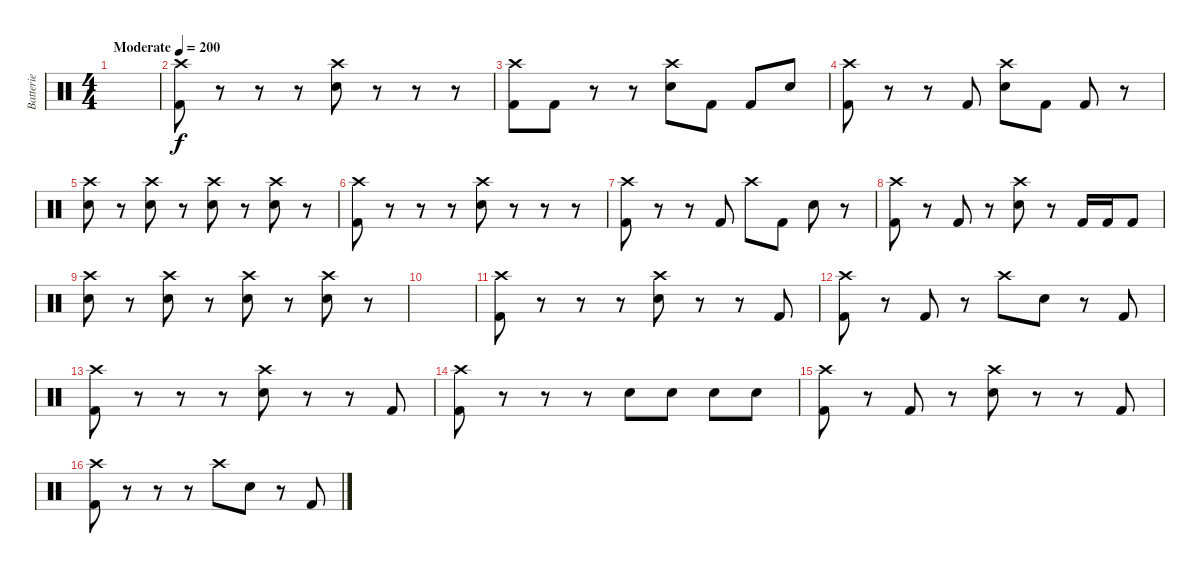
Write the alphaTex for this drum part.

\track ("Batterie" "Batterie") {instrument percussion}
\staff {score}
\articulation defaults
\ts (4 4)
\tempo (200 "Moderate")
\clef neutral
\ks c
|
("Crash high (hit)" "Kick (hit) 2").8 r.8 r.8 r.8 ("Crash high (hit)" "Electric Snare (hit)").8 r.8 r.8 r.8 |
("Crash high (hit)" "Kick (hit) 2").8 "Kick (hit) 2".8 r.8 r.8 ("Crash high (hit)" "Electric Snare (hit)").8 "Kick (hit) 2".8 "Kick (hit) 2".8 "Electric Snare (hit)".8 |
("Crash high (hit)" "Kick (hit) 2").8 r.8 r.8 "Kick (hit) 2".8 ("Crash high (hit)" "Electric Snare (hit)").8 "Kick (hit) 2".8 "Kick (hit) 2".8 r.8 |
("Crash high (hit)" "Electric Snare (hit)").8 r.8 ("Crash high (hit)" "Electric Snare (hit)").8 r.8 ("Crash high (hit)" "Electric Snare (hit)").8 r.8 ("Crash high (hit)" "Electric Snare (hit)").8 r.8 |
("Crash high (hit)" "Kick (hit) 2").8 r.8 r.8 r.8 ("Crash high (hit)" "Electric Snare (hit)").8 r.8 r.8 r.8 |
("Crash high (hit)" "Kick (hit) 2").8 r.8 r.8 "Kick (hit) 2".8 "Crash high (hit)".8 "Kick (hit) 2".8 "Electric Snare (hit)".8 r.8 |
("Crash high (hit)" "Kick (hit) 2").8 r.8 "Kick (hit) 2".8 r.8 ("Crash high (hit)" "Electric Snare (hit)").8 r.8 "Kick (hit) 2".16 "Kick (hit) 2".16 "Kick (hit) 2".8 |
("Crash high (hit)" "Electric Snare (hit)").8 r.8 ("Crash high (hit)" "Electric Snare (hit)").8 r.8 ("Crash high (hit)" "Electric Snare (hit)").8 r.8 ("Crash high (hit)" "Electric Snare (hit)").8 r.8 |
|
("Crash high (hit)" "Kick (hit) 2").8 r.8 r.8 r.8 ("Crash high (hit)" "Electric Snare (hit)").8 r.8 r.8 "Kick (hit) 2".8 |
("Crash high (hit)" "Kick (hit) 2").8 r.8 "Kick (hit) 2".8 r.8 "Crash high (hit)".8 "Electric Snare (hit)".8 r.8 "Kick (hit) 2".8 |
("Crash high (hit)" "Kick (hit) 2").8 r.8 r.8 r.8 ("Crash high (hit)" "Electric Snare (hit)").8 r.8 r.8 "Kick (hit) 2".8 |
("Crash high (hit)" "Kick (hit) 2").8 r.8 r.8 r.8 "Electric Snare (hit)".8 "Electric Snare (hit)".8 "Electric Snare (hit)".8 "Electric Snare (hit)".8 |
("Crash high (hit)" "Kick (hit) 2").8 r.8 "Kick (hit) 2".8 r.8 ("Crash high (hit)" "Electric Snare (hit)").8 r.8 r.8 "Kick (hit) 2".8 |
("Crash high (hit)" "Kick (hit) 2").8 r.8 r.8 r.8 "Crash high (hit)".8 "Electric Snare (hit)".8 r.8 "Kick (hit) 2".8
